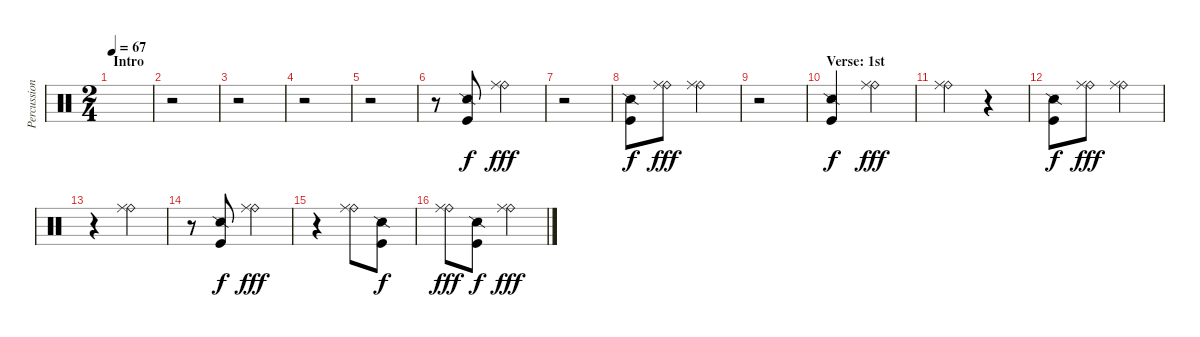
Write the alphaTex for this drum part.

\track ("Percussions" "Percussion") {instrument percussion}
\staff {score}
\articulation defaults
\ts (2 4)
\section ("" "Intro")
\tempo 67
\clef neutral
\ks c
|
r.2 |
r.2 |
r.2 |
r.2 |
r.8 ("Snare (side stick) 2" "Kick (hit)").8 ("Ride (bell)" "Ride (middle)").4{dy fff} |
r.2 |
("Snare (side stick) 2" "Kick (hit)").8{dy f} ("Ride (bell)" "Ride (middle)").8{dy fff} ("Ride (bell)" "Ride (middle)").4 |
r.2 |
\section ("" "Verse: 1st")
("Snare (side stick) 2" "Kick (hit)").4{dy f} ("Ride (bell)" "Ride (middle)").4{dy fff} |
("Ride (bell)" "Ride (middle)").4 r.4 |
("Snare (side stick) 2" "Kick (hit)").8{dy f} ("Ride (bell)" "Ride (middle)").8{dy fff} ("Ride (bell)" "Ride (middle)").4 |
r.4 ("Ride (bell)" "Ride (middle)").4 |
r.8 ("Snare (side stick) 2" "Kick (hit)").8{dy f} ("Ride (bell)" "Ride (middle)").4{dy fff} |
r.4 ("Ride (bell)" "Ride (middle)").8 ("Snare (side stick) 2" "Kick (hit)").8{dy f} |
("Ride (bell)" "Ride (middle)").8{dy fff} ("Snare (side stick) 2" "Kick (hit)").8{dy f} ("Ride (bell)" "Ride (middle)").4{dy fff}
